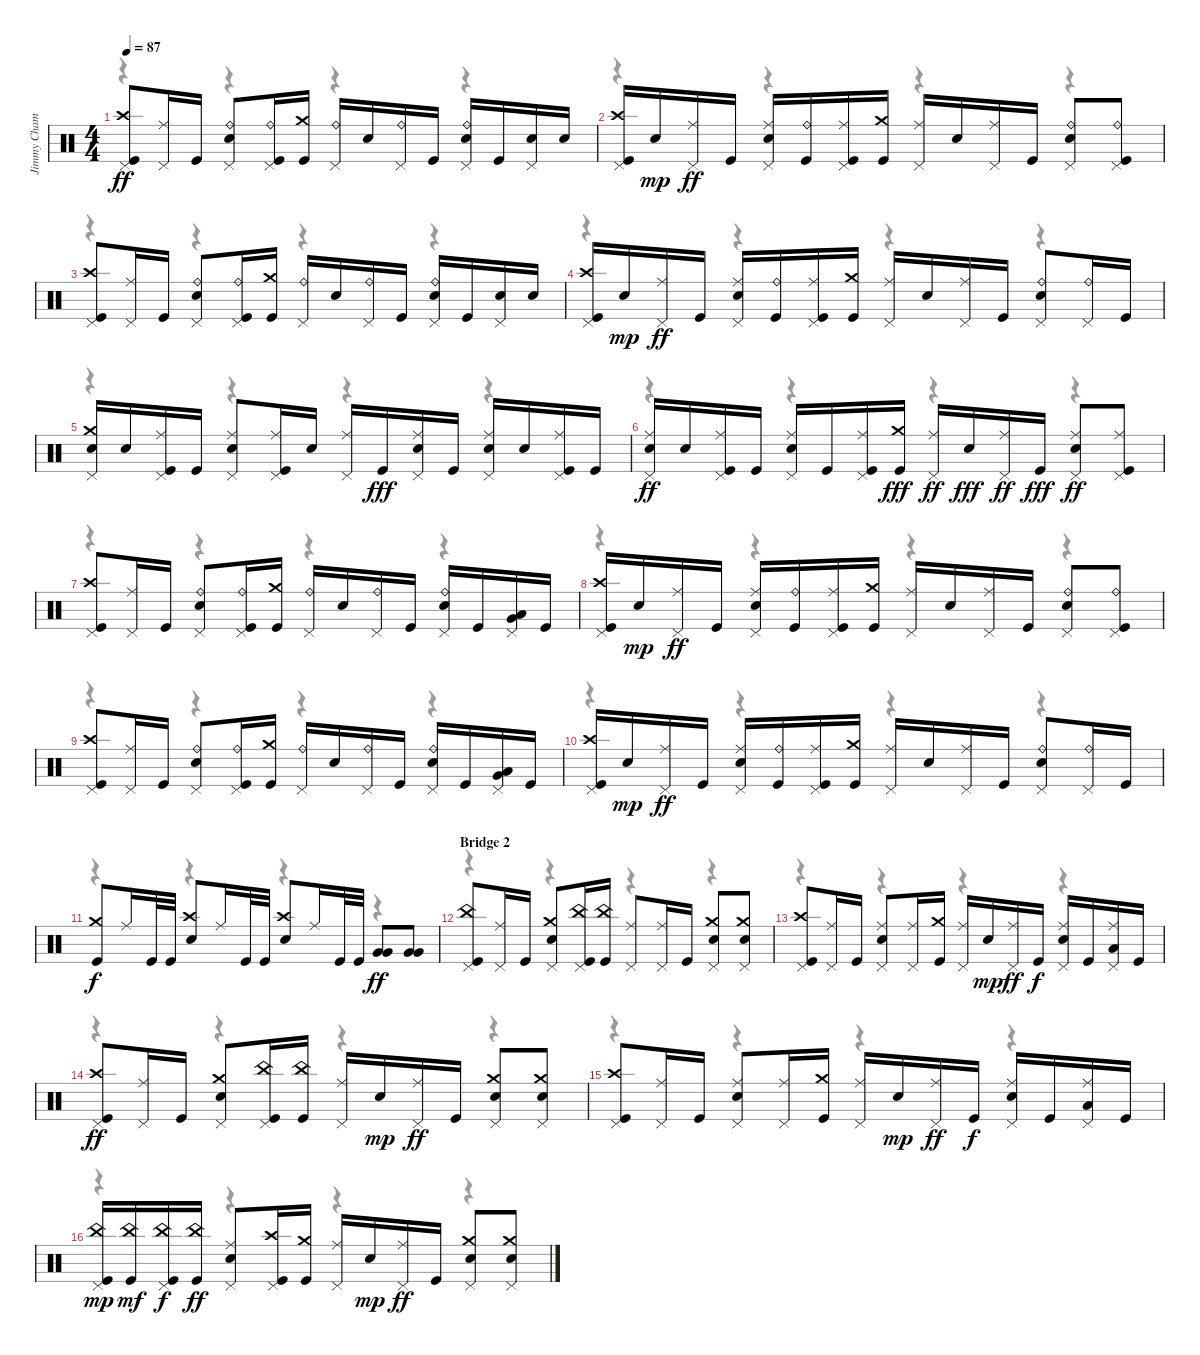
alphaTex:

\track ("Jimmy Chamberlin - Drums" "Jimmy Cham") {instrument percussion}
\staff {score}
\articulation defaults
\voice
\ts (4 4)
\tempo 87
\clef neutral
\ks c
("Crash high (hit)" "Pedal Hi-Hat (hit)" "Kick (hit)").8{dy ff} ("Ride (middle)" "Pedal Hi-Hat (hit)").16 "Kick (hit)".16 ("Ride (bell)" "Pedal Hi-Hat (hit)" "Snare (hit) 2").8 ("Ride (bell)" "Pedal Hi-Hat (hit)" "Kick (hit)").16 ("Crash medium (hit)" "Kick (hit)").16 ("Ride (bell)" "Pedal Hi-Hat (hit)").16 "Snare (hit) 2".16 ("Ride (bell)" "Pedal Hi-Hat (hit)").16 "Kick (hit)".16 ("Ride (bell)" "Pedal Hi-Hat (hit)" "Snare (hit) 2").16 "Kick (hit)".16 ("Pedal Hi-Hat (hit)" "Snare (hit) 2").16 "Snare (hit) 2".16 |
("Crash high (hit)" "Pedal Hi-Hat (hit)" "Kick (hit)").16 "Snare (hit) 2".16{dy mp} ("Ride (middle)" "Pedal Hi-Hat (hit)").16{dy ff} "Kick (hit)".16 ("Ride (middle)" "Pedal Hi-Hat (hit)" "Snare (hit) 2").16 ("Ride (bell)" "Kick (hit)").16 ("Ride (middle)" "Pedal Hi-Hat (hit)" "Kick (hit)").16 ("Crash medium (hit)" "Kick (hit)").16 ("Ride (middle)" "Pedal Hi-Hat (hit)").16 "Snare (hit) 2".16 ("Ride (middle)" "Pedal Hi-Hat (hit)").16 "Kick (hit)".16 ("Ride (bell)" "Pedal Hi-Hat (hit)" "Snare (hit) 2").8 ("Ride (bell)" "Pedal Hi-Hat (hit)" "Kick (hit)").8 |
("Crash high (hit)" "Pedal Hi-Hat (hit)" "Kick (hit)").8 ("Ride (middle)" "Pedal Hi-Hat (hit)").16 "Kick (hit)".16 ("Ride (bell)" "Pedal Hi-Hat (hit)" "Snare (hit) 2").8 ("Ride (bell)" "Pedal Hi-Hat (hit)" "Kick (hit)").16 ("Crash medium (hit)" "Kick (hit)").16 ("Ride (bell)" "Pedal Hi-Hat (hit)").16 "Snare (hit) 2".16 ("Ride (bell)" "Pedal Hi-Hat (hit)").16 "Kick (hit)".16 ("Ride (bell)" "Pedal Hi-Hat (hit)" "Snare (hit) 2").16 "Kick (hit)".16 ("Pedal Hi-Hat (hit)" "Snare (hit) 2").16 "Snare (hit) 2".16 |
("Crash high (hit)" "Pedal Hi-Hat (hit)" "Kick (hit)").16 "Snare (hit) 2".16{dy mp} ("Ride (middle)" "Pedal Hi-Hat (hit)").16{dy ff} "Kick (hit)".16 ("Ride (middle)" "Pedal Hi-Hat (hit)" "Snare (hit) 2").16 ("Ride (bell)" "Kick (hit)").16 ("Ride (middle)" "Pedal Hi-Hat (hit)" "Kick (hit)").16 ("Crash medium (hit)" "Kick (hit)").16 ("Ride (middle)" "Pedal Hi-Hat (hit)").16 "Snare (hit) 2".16 ("Ride (middle)" "Pedal Hi-Hat (hit)").16 "Kick (hit)".16 ("Ride (bell)" "Pedal Hi-Hat (hit)" "Snare (hit) 2").8 ("Ride (bell)" "Pedal Hi-Hat (hit)").16 "Kick (hit)".16 |
("Crash medium (hit)" "Pedal Hi-Hat (hit)" "Snare (hit) 2").16 "Snare (hit) 2".16 ("Ride (middle)" "Pedal Hi-Hat (hit)" "Kick (hit)").16 "Kick (hit)".16 ("Ride (middle)" "Pedal Hi-Hat (hit)" "Snare (hit) 2").8 ("Ride (middle)" "Pedal Hi-Hat (hit)" "Kick (hit)").16 "Snare (hit) 2".16 ("Ride (middle)" "Pedal Hi-Hat (hit)").16 "Kick (hit)".16{dy fff} ("Ride (middle)" "Pedal Hi-Hat (hit)" "Snare (hit) 2").16 "Kick (hit)".16 ("Ride (middle)" "Pedal Hi-Hat (hit)" "Snare (hit) 2").16 "Snare (hit) 2".16 ("Ride (middle)" "Pedal Hi-Hat (hit)" "Kick (hit)").16 "Kick (hit)".16 |
("Ride (middle)" "Pedal Hi-Hat (hit)" "Snare (hit) 2").16{dy ff} "Snare (hit) 2".16 ("Ride (middle)" "Pedal Hi-Hat (hit)" "Kick (hit)").16 "Kick (hit)".16 ("Ride (middle)" "Pedal Hi-Hat (hit)" "Snare (hit) 2").16 "Kick (hit)".16 ("Ride (middle)" "Pedal Hi-Hat (hit)" "Kick (hit)").16 ("Crash medium (hit)" "Kick (hit)").16{dy fff} ("Ride (middle)" "Pedal Hi-Hat (hit)").16{dy ff} "Snare (hit) 2".16{dy fff} ("Ride (middle)" "Pedal Hi-Hat (hit)").16{dy ff} "Kick (hit)".16{dy fff} ("Ride (middle)" "Pedal Hi-Hat (hit)" "Snare (hit) 2").8{dy ff} ("Ride (middle)" "Pedal Hi-Hat (hit)" "Kick (hit)").8 |
("Crash high (hit)" "Pedal Hi-Hat (hit)" "Kick (hit)").8 ("Ride (middle)" "Pedal Hi-Hat (hit)").16 "Kick (hit)".16 ("Ride (bell)" "Pedal Hi-Hat (hit)" "Snare (hit) 2").8 ("Ride (bell)" "Pedal Hi-Hat (hit)" "Kick (hit)").16 ("Crash medium (hit)" "Kick (hit)").16 ("Ride (bell)" "Pedal Hi-Hat (hit)").16 "Snare (hit) 2".16 ("Ride (bell)" "Pedal Hi-Hat (hit)").16 "Kick (hit)".16 ("Ride (bell)" "Pedal Hi-Hat (hit)" "Snare (hit) 2").16 "Kick (hit)".16 ("Pedal Hi-Hat (hit)" "Low Tom (hit)" "Very Low Tom (hit)").16 "Kick (hit)".16 |
("Crash high (hit)" "Pedal Hi-Hat (hit)" "Kick (hit)").16 "Snare (hit) 2".16{dy mp} ("Ride (middle)" "Pedal Hi-Hat (hit)").16{dy ff} "Kick (hit)".16 ("Ride (middle)" "Pedal Hi-Hat (hit)" "Snare (hit) 2").16 ("Ride (bell)" "Kick (hit)").16 ("Ride (middle)" "Pedal Hi-Hat (hit)" "Kick (hit)").16 ("Crash medium (hit)" "Kick (hit)").16 ("Ride (middle)" "Pedal Hi-Hat (hit)").16 "Snare (hit) 2".16 ("Ride (middle)" "Pedal Hi-Hat (hit)").16 "Kick (hit)".16 ("Ride (bell)" "Pedal Hi-Hat (hit)" "Snare (hit) 2").8 ("Ride (bell)" "Pedal Hi-Hat (hit)" "Kick (hit)").8 |
("Crash high (hit)" "Pedal Hi-Hat (hit)" "Kick (hit)").8 ("Ride (middle)" "Pedal Hi-Hat (hit)").16 "Kick (hit)".16 ("Ride (bell)" "Pedal Hi-Hat (hit)" "Snare (hit) 2").8 ("Ride (bell)" "Pedal Hi-Hat (hit)" "Kick (hit)").16 ("Crash medium (hit)" "Kick (hit)").16 ("Ride (bell)" "Pedal Hi-Hat (hit)").16 "Snare (hit) 2".16 ("Ride (bell)" "Pedal Hi-Hat (hit)").16 "Kick (hit)".16 ("Ride (bell)" "Pedal Hi-Hat (hit)" "Snare (hit) 2").16 "Kick (hit)".16 ("Pedal Hi-Hat (hit)" "Low Tom (hit)" "Very Low Tom (hit)").16 "Kick (hit)".16 |
("Crash high (hit)" "Pedal Hi-Hat (hit)" "Kick (hit)").16 "Snare (hit) 2".16{dy mp} ("Ride (middle)" "Pedal Hi-Hat (hit)").16{dy ff} "Kick (hit)".16 ("Ride (middle)" "Pedal Hi-Hat (hit)" "Snare (hit) 2").16 ("Ride (bell)" "Kick (hit)").16 ("Ride (middle)" "Pedal Hi-Hat (hit)" "Kick (hit)").16 ("Crash medium (hit)" "Kick (hit)").16 ("Ride (middle)" "Pedal Hi-Hat (hit)").16 "Snare (hit) 2".16 ("Ride (middle)" "Pedal Hi-Hat (hit)").16 "Kick (hit)".16 ("Ride (bell)" "Pedal Hi-Hat (hit)" "Snare (hit) 2").8 ("Ride (bell)" "Pedal Hi-Hat (hit)").16 "Kick (hit)".16 |
("Crash medium (hit)" "Kick (hit)").8{dy f} "Ride (middle)".16 "Kick (hit)".32 "Kick (hit)".32 ("Crash high (hit)" "Snare (hit) 2").8 "Ride (middle)".16 "Kick (hit)".32 "Kick (hit)".32 ("Crash high (hit)" "Snare (hit) 2").8 "Ride (middle)".16 "Kick (hit)".32 "Kick (hit)".32 ("Very Low Tom (hit)" "Very Low Tom (hit)").8{dy ff} ("Very Low Tom (hit)" "Very Low Tom (hit)").8 |
\section ("" "Bridge 2")
("China (hit)" "Pedal Hi-Hat (hit)" "Kick (hit)").8 ("Ride (middle)" "Pedal Hi-Hat (hit)").16 "Kick (hit)".16 ("Crash medium (hit)" "Pedal Hi-Hat (hit)" "Snare (hit) 2").8 ("China (hit)" "Pedal Hi-Hat (hit)" "Kick (hit)").16 ("China (hit)" "Kick (hit)").16 ("Ride (middle)" "Pedal Hi-Hat (hit)").8 ("Ride (middle)" "Pedal Hi-Hat (hit)").16 "Kick (hit)".16 ("Crash medium (hit)" "Pedal Hi-Hat (hit)" "Snare (hit) 2").8 ("Crash medium (hit)" "Pedal Hi-Hat (hit)" "Snare (hit) 2").8 |
("Crash high (hit)" "Pedal Hi-Hat (hit)" "Kick (hit)").8 ("Ride (middle)" "Pedal Hi-Hat (hit)").16 "Kick (hit)".16 ("Ride (middle)" "Pedal Hi-Hat (hit)" "Snare (hit) 2").8 ("Ride (middle)" "Pedal Hi-Hat (hit)").16 ("Crash medium (hit)" "Kick (hit)").16 ("Ride (middle)" "Pedal Hi-Hat (hit)").16 "Snare (hit) 2".16{dy mp} ("Ride (middle)" "Pedal Hi-Hat (hit)").16{dy ff} "Kick (hit)".16{dy f} ("Ride (middle)" "Pedal Hi-Hat (hit)" "Snare (hit) 2").16 "Kick (hit)".16 ("Ride (middle)" "Pedal Hi-Hat (hit)" "Low Tom (hit)").16 "Kick (hit)".16 |
("Crash high (hit)" "Pedal Hi-Hat (hit)" "Kick (hit)").8{dy ff} ("Ride (middle)" "Pedal Hi-Hat (hit)").16 "Kick (hit)".16 ("Crash medium (hit)" "Pedal Hi-Hat (hit)" "Snare (hit) 2").8 ("China (hit)" "Pedal Hi-Hat (hit)" "Kick (hit)").16 ("China (hit)" "Kick (hit)").16 ("Ride (middle)" "Pedal Hi-Hat (hit)").16 "Snare (hit) 2".16{dy mp} ("Ride (middle)" "Pedal Hi-Hat (hit)").16{dy ff} "Kick (hit)".16 ("Crash medium (hit)" "Pedal Hi-Hat (hit)" "Snare (hit) 2").8 ("Crash medium (hit)" "Pedal Hi-Hat (hit)" "Snare (hit) 2").8 |
("Crash high (hit)" "Pedal Hi-Hat (hit)" "Kick (hit)").8 ("Ride (middle)" "Pedal Hi-Hat (hit)").16 "Kick (hit)".16 ("Ride (middle)" "Pedal Hi-Hat (hit)" "Snare (hit) 2").8 ("Ride (middle)" "Pedal Hi-Hat (hit)").16 ("Crash medium (hit)" "Kick (hit)").16 ("Ride (middle)" "Pedal Hi-Hat (hit)").16 "Snare (hit) 2".16{dy mp} ("Ride (middle)" "Pedal Hi-Hat (hit)").16{dy ff} "Kick (hit)".16{dy f} ("Ride (middle)" "Pedal Hi-Hat (hit)" "Snare (hit) 2").16 "Kick (hit)".16 ("Ride (middle)" "Pedal Hi-Hat (hit)" "Low Tom (hit)").16 "Kick (hit)".16 |
("China (hit)" "Pedal Hi-Hat (hit)" "Kick (hit)").16{dy mp} ("China (hit)" "Kick (hit)").16{dy mf} ("China (hit)" "Pedal Hi-Hat (hit)" "Kick (hit)").16{dy f} ("China (hit)" "Kick (hit)").16{dy ff} ("Ride (middle)" "Pedal Hi-Hat (hit)" "Snare (hit) 2").8 ("Crash high (hit)" "Pedal Hi-Hat (hit)" "Kick (hit)").16 ("Crash medium (hit)" "Kick (hit)").16 ("Ride (middle)" "Pedal Hi-Hat (hit)").16 "Snare (hit) 2".16{dy mp} ("Ride (middle)" "Pedal Hi-Hat (hit)").16{dy ff} "Kick (hit)".16 ("Crash medium (hit)" "Pedal Hi-Hat (hit)" "Snare (hit) 2").8 ("Crash medium (hit)" "Pedal Hi-Hat (hit)" "Snare (hit) 2").8
\voice
\clef neutral
\ottava regular
\simile none
\ks c
r.4{dy f} r.4 r.4 r.4 |
r.4 r.4 r.4 r.4 |
r.4 r.4 r.4 r.4 |
r.4 r.4 r.4 r.4 |
r.4 r.4 r.4 r.4 |
r.4 r.4 r.4 r.4 |
r.4 r.4 r.4 r.4 |
r.4 r.4 r.4 r.4 |
r.4 r.4 r.4 r.4 |
r.4 r.4 r.4 r.4 |
r.4 r.4 r.4 r.4 |
r.4 r.4 r.4 r.4 |
r.4 r.4 r.4 r.4 |
r.4 r.4 r.4 r.4 |
r.4 r.4 r.4 r.4 |
r.4 r.4 r.4 r.4
